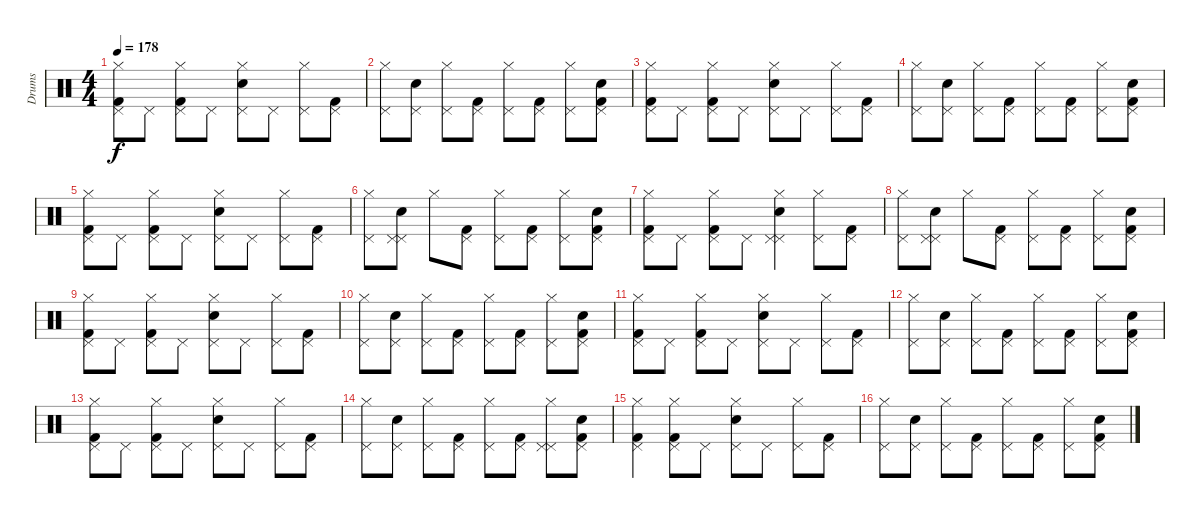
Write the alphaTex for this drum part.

\track ("Drums" "Drums") {instrument percussion}
\staff {score}
\articulation defaults
\ts (4 4)
\tempo 178
\clef neutral
\ks c
("Hi-Hat (closed)" "Pedal Hi-Hat (hit)" "Kick (hit) 2").8{dy f} "Pedal Hi-Hat (hit)".8 ("Hi-Hat (closed)" "Pedal Hi-Hat (hit)" "Kick (hit) 2").8 "Pedal Hi-Hat (hit)".8 ("Snare (hit) 2" "Hi-Hat (closed)" "Pedal Hi-Hat (hit)").8 "Pedal Hi-Hat (hit)".8 ("Hi-Hat (closed)" "Pedal Hi-Hat (hit)").8 ("Pedal Hi-Hat (hit)" "Kick (hit) 2").8 |
("Hi-Hat (closed)" "Pedal Hi-Hat (hit)").8 ("Snare (hit) 2" "Pedal Hi-Hat (hit)").8 ("Hi-Hat (closed)" "Pedal Hi-Hat (hit)").8 ("Kick (hit) 2" "Pedal Hi-Hat (hit)").8 ("Hi-Hat (closed)" "Pedal Hi-Hat (hit)").8 ("Kick (hit) 2" "Pedal Hi-Hat (hit)").8 ("Hi-Hat (closed)" "Pedal Hi-Hat (hit)").8 ("Kick (hit) 2" "Snare (hit) 2" "Pedal Hi-Hat (hit)").8 |
("Hi-Hat (closed)" "Pedal Hi-Hat (hit)" "Kick (hit) 2").8 "Pedal Hi-Hat (hit)".8 ("Hi-Hat (closed)" "Pedal Hi-Hat (hit)" "Kick (hit) 2").8 "Pedal Hi-Hat (hit)".8 ("Snare (hit) 2" "Hi-Hat (closed)" "Pedal Hi-Hat (hit)").8 "Pedal Hi-Hat (hit)".8 ("Hi-Hat (closed)" "Pedal Hi-Hat (hit)").8 ("Pedal Hi-Hat (hit)" "Kick (hit) 2").8 |
("Hi-Hat (closed)" "Pedal Hi-Hat (hit)").8 ("Snare (hit) 2" "Pedal Hi-Hat (hit)").8 ("Hi-Hat (closed)" "Pedal Hi-Hat (hit)").8 ("Kick (hit) 2" "Pedal Hi-Hat (hit)").8 ("Hi-Hat (closed)" "Pedal Hi-Hat (hit)").8 ("Kick (hit) 2" "Pedal Hi-Hat (hit)").8 ("Hi-Hat (closed)" "Pedal Hi-Hat (hit)").8 ("Kick (hit) 2" "Snare (hit) 2" "Pedal Hi-Hat (hit)").8 |
("Hi-Hat (closed)" "Pedal Hi-Hat (hit)" "Kick (hit) 2").8 "Pedal Hi-Hat (hit)".8 ("Hi-Hat (closed)" "Pedal Hi-Hat (hit)" "Kick (hit) 2").8 "Pedal Hi-Hat (hit)".8 ("Snare (hit) 2" "Hi-Hat (closed)" "Pedal Hi-Hat (hit)").8 "Pedal Hi-Hat (hit)".8 ("Hi-Hat (closed)" "Pedal Hi-Hat (hit)").8 ("Pedal Hi-Hat (hit)" "Kick (hit) 2").8 |
("Hi-Hat (closed)" "Pedal Hi-Hat (hit)").8 ("Snare (hit) 2" "Pedal Hi-Hat (hit)" "Pedal Hi-Hat (hit)").8 "Hi-Hat (closed)".8 ("Kick (hit) 2" "Pedal Hi-Hat (hit)").8 ("Hi-Hat (closed)" "Pedal Hi-Hat (hit)").8 ("Kick (hit) 2" "Pedal Hi-Hat (hit)").8 ("Hi-Hat (closed)" "Pedal Hi-Hat (hit)").8 ("Kick (hit) 2" "Snare (hit) 2" "Pedal Hi-Hat (hit)").8 |
("Hi-Hat (closed)" "Pedal Hi-Hat (hit)" "Kick (hit) 2").8 "Pedal Hi-Hat (hit)".8 ("Hi-Hat (closed)" "Pedal Hi-Hat (hit)" "Kick (hit) 2").8 "Pedal Hi-Hat (hit)".8 ("Snare (hit) 2" "Hi-Hat (closed)" "Pedal Hi-Hat (hit)" "Pedal Hi-Hat (hit)").4 ("Hi-Hat (closed)" "Pedal Hi-Hat (hit)").8 ("Pedal Hi-Hat (hit)" "Kick (hit) 2").8 |
("Hi-Hat (closed)" "Pedal Hi-Hat (hit)").8 ("Snare (hit) 2" "Pedal Hi-Hat (hit)" "Pedal Hi-Hat (hit)").8 "Hi-Hat (closed)".8 ("Kick (hit) 2" "Pedal Hi-Hat (hit)").8 ("Hi-Hat (closed)" "Pedal Hi-Hat (hit)").8 ("Kick (hit) 2" "Pedal Hi-Hat (hit)").8 ("Hi-Hat (closed)" "Pedal Hi-Hat (hit)").8 ("Kick (hit) 2" "Snare (hit) 2" "Pedal Hi-Hat (hit)").8 |
("Hi-Hat (closed)" "Pedal Hi-Hat (hit)" "Kick (hit) 2").8 "Pedal Hi-Hat (hit)".8 ("Hi-Hat (closed)" "Pedal Hi-Hat (hit)" "Kick (hit) 2").8 "Pedal Hi-Hat (hit)".8 ("Snare (hit) 2" "Hi-Hat (closed)" "Pedal Hi-Hat (hit)").8 "Pedal Hi-Hat (hit)".8 ("Hi-Hat (closed)" "Pedal Hi-Hat (hit)").8 ("Pedal Hi-Hat (hit)" "Kick (hit) 2").8 |
("Hi-Hat (closed)" "Pedal Hi-Hat (hit)").8 ("Snare (hit) 2" "Pedal Hi-Hat (hit)").8 ("Hi-Hat (closed)" "Pedal Hi-Hat (hit)").8 ("Kick (hit) 2" "Pedal Hi-Hat (hit)").8 ("Hi-Hat (closed)" "Pedal Hi-Hat (hit)").8 ("Kick (hit) 2" "Pedal Hi-Hat (hit)").8 ("Hi-Hat (closed)" "Pedal Hi-Hat (hit)").8 ("Kick (hit) 2" "Snare (hit) 2" "Pedal Hi-Hat (hit)").8 |
("Hi-Hat (closed)" "Pedal Hi-Hat (hit)" "Kick (hit) 2").8 "Pedal Hi-Hat (hit)".8 ("Hi-Hat (closed)" "Pedal Hi-Hat (hit)" "Kick (hit) 2").8 "Pedal Hi-Hat (hit)".8 ("Snare (hit) 2" "Hi-Hat (closed)" "Pedal Hi-Hat (hit)").8 "Pedal Hi-Hat (hit)".8 ("Hi-Hat (closed)" "Pedal Hi-Hat (hit)").8 ("Pedal Hi-Hat (hit)" "Kick (hit) 2").8 |
("Hi-Hat (closed)" "Pedal Hi-Hat (hit)").8 ("Snare (hit) 2" "Pedal Hi-Hat (hit)").8 ("Hi-Hat (closed)" "Pedal Hi-Hat (hit)").8 ("Kick (hit) 2" "Pedal Hi-Hat (hit)").8 ("Hi-Hat (closed)" "Pedal Hi-Hat (hit)").8 ("Kick (hit) 2" "Pedal Hi-Hat (hit)").8 ("Hi-Hat (closed)" "Pedal Hi-Hat (hit)").8 ("Kick (hit) 2" "Snare (hit) 2" "Pedal Hi-Hat (hit)").8 |
("Hi-Hat (closed)" "Pedal Hi-Hat (hit)" "Kick (hit) 2").8 "Pedal Hi-Hat (hit)".8 ("Hi-Hat (closed)" "Pedal Hi-Hat (hit)" "Kick (hit) 2").8 "Pedal Hi-Hat (hit)".8 ("Snare (hit) 2" "Hi-Hat (closed)" "Pedal Hi-Hat (hit)").8 "Pedal Hi-Hat (hit)".8 ("Hi-Hat (closed)" "Pedal Hi-Hat (hit)").8 ("Pedal Hi-Hat (hit)" "Kick (hit) 2").8 |
("Hi-Hat (closed)" "Pedal Hi-Hat (hit)").8 ("Snare (hit) 2" "Pedal Hi-Hat (hit)").8 ("Hi-Hat (closed)" "Pedal Hi-Hat (hit)").8 ("Kick (hit) 2" "Pedal Hi-Hat (hit)").8 ("Hi-Hat (closed)" "Pedal Hi-Hat (hit)").8 ("Kick (hit) 2" "Pedal Hi-Hat (hit)").8 ("Hi-Hat (closed)" "Pedal Hi-Hat (hit)" "Pedal Hi-Hat (hit)").8 ("Kick (hit) 2" "Snare (hit) 2" "Pedal Hi-Hat (hit)").8 |
("Hi-Hat (closed)" "Pedal Hi-Hat (hit)" "Kick (hit) 2").4 ("Hi-Hat (closed)" "Pedal Hi-Hat (hit)" "Kick (hit) 2").8 "Pedal Hi-Hat (hit)".8 ("Snare (hit) 2" "Hi-Hat (closed)" "Pedal Hi-Hat (hit)").8 "Pedal Hi-Hat (hit)".8 ("Hi-Hat (closed)" "Pedal Hi-Hat (hit)").8 ("Pedal Hi-Hat (hit)" "Kick (hit) 2").8 |
("Hi-Hat (closed)" "Pedal Hi-Hat (hit)").8 ("Snare (hit) 2" "Pedal Hi-Hat (hit)").8 ("Hi-Hat (closed)" "Pedal Hi-Hat (hit)").8 ("Kick (hit) 2" "Pedal Hi-Hat (hit)").8 ("Hi-Hat (closed)" "Pedal Hi-Hat (hit)").8 ("Kick (hit) 2" "Pedal Hi-Hat (hit)").8 ("Hi-Hat (closed)" "Pedal Hi-Hat (hit)").8 ("Kick (hit) 2" "Snare (hit) 2" "Pedal Hi-Hat (hit)").8
